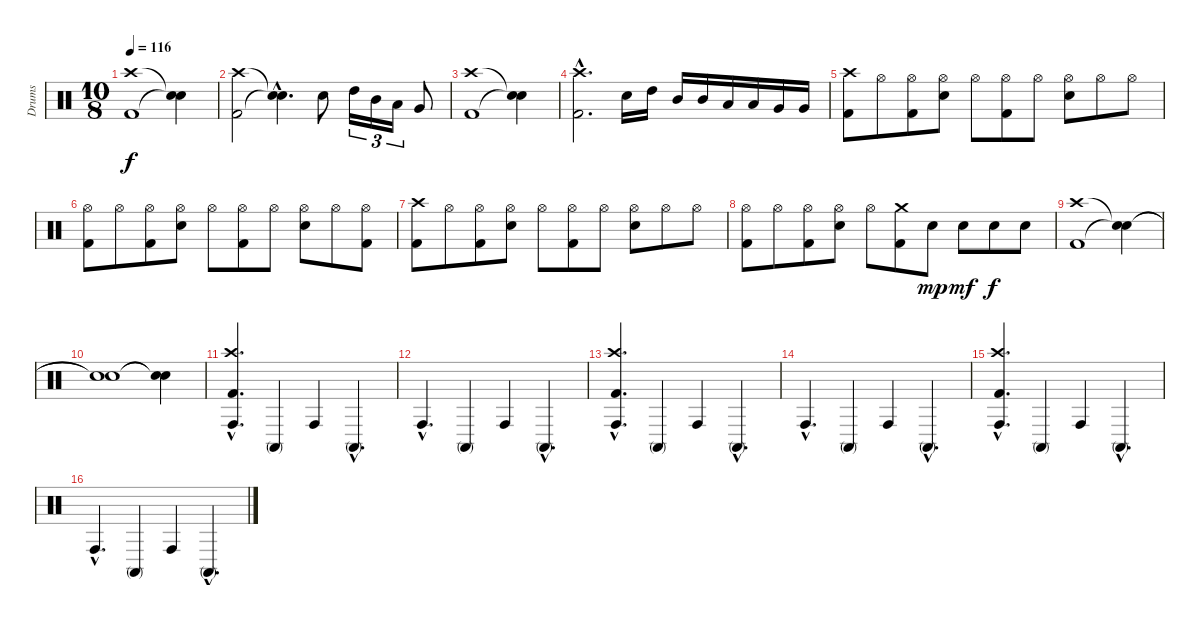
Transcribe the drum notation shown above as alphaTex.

\track ("Drums" "Drums") {instrument percussion}
\staff {score}
\articulation defaults
\ts (10 8)
\tempo 116
\clef neutral
\ks c
("Crash high (hit)" "Kick (hit) 2").1{dy f} ("Snare (hit)"{t} "Snare (hit)"{t}).4 |
("Crash high (hit)" "Kick (hit) 2").2 ("Snare (hit)"{hac t} "Snare (hit)"{hac t}).4{d} "Snare (hit) 2".8 "High Tom (hit)".16{tu (3 2)} "Mid Tom (hit)".16{tu (3 2)} "Low Tom (hit)".16{tu (3 2)} "Very Low Tom (hit)".8 |
("Crash high (hit)" "Kick (hit) 2").1 ("Snare (hit)"{t} "Snare (hit)"{t}).4 |
("Crash high (hit)"{hac} "Kick (hit) 2"{hac}).2{d} "Snare (hit) 2".16 "High Tom (hit)".16 "Mid Tom (hit)".16 "Mid Tom (hit)".16 "Low Tom (hit)".16 "Low Tom (hit)".16 "Very Low Tom (hit)".16 "Very Low Tom (hit)".16 |
("Crash high (hit)" "Kick (hit) 2").8 "Hi-Hat (open)".8 ("Hi-Hat (open)" "Kick (hit) 2").8 ("Hi-Hat (open)" "Snare (hit) 2").8 "Hi-Hat (open)".8 ("Hi-Hat (open)" "Kick (hit) 2").8 "Hi-Hat (open)".8 ("Hi-Hat (open)" "Snare (hit) 2").8 "Hi-Hat (open)".8 "Hi-Hat (open)".8 |
("Hi-Hat (open)" "Kick (hit) 2").8 "Hi-Hat (open)".8 ("Hi-Hat (open)" "Kick (hit) 2").8 ("Hi-Hat (open)" "Snare (hit) 2").8 "Hi-Hat (open)".8 ("Hi-Hat (open)" "Kick (hit) 2").8 "Hi-Hat (open)".8 ("Hi-Hat (open)" "Snare (hit) 2").8 "Hi-Hat (open)".8 ("Hi-Hat (open)" "Kick (hit) 2").8 |
("Crash high (hit)" "Kick (hit) 2").8 "Hi-Hat (open)".8 ("Hi-Hat (open)" "Kick (hit) 2").8 ("Hi-Hat (open)" "Snare (hit) 2").8 "Hi-Hat (open)".8 ("Hi-Hat (open)" "Kick (hit) 2").8 "Hi-Hat (open)".8 ("Hi-Hat (open)" "Snare (hit) 2").8 "Hi-Hat (open)".8 "Hi-Hat (open)".8 |
("Hi-Hat (open)" "Kick (hit) 2").8 "Hi-Hat (open)".8 ("Hi-Hat (open)" "Kick (hit) 2").8 ("Hi-Hat (open)" "Snare (hit) 2").8 "Hi-Hat (open)".8 ("Crash medium (hit)" "Kick (hit) 2").8 "Snare (hit) 2".8{dy mp} "Snare (hit) 2".8{dy mf} "Snare (hit) 2".8{dy f} "Snare (hit) 2".8 |
("Crash high (hit)" "Kick (hit) 2").1 ("Snare (hit)"{t} "Snare (hit)"{t}).4 |
("Snare (hit)"{t} "Snare (hit)"{t}).1 ("Snare (hit)"{t} "Snare (hit)"{t}).4 |
("Crash high (hit)"{hac} "Conga high (hit)"{hac} "Kick (hit) 2"{hac}).4{d} "Conga high (mute)".4 "Conga high (hit)".4 "Conga high (mute)"{hac}.4{d} |
"Conga high (hit)"{hac}.4{d} "Conga high (mute)".4 "Conga high (hit)".4 "Conga high (mute)"{hac}.4{d} |
("Crash high (hit)"{hac} "Conga high (hit)"{hac} "Kick (hit) 2"{hac}).4{d} "Conga high (mute)".4 "Conga high (hit)".4 "Conga high (mute)"{hac}.4{d} |
"Conga high (hit)"{hac}.4{d} "Conga high (mute)".4 "Conga high (hit)".4 "Conga high (mute)"{hac}.4{d} |
("Crash high (hit)"{hac} "Conga high (hit)"{hac} "Kick (hit) 2"{hac}).4{d} "Conga high (mute)".4 "Conga high (hit)".4 "Conga high (mute)"{hac}.4{d} |
"Conga high (hit)"{hac}.4{d} "Conga high (mute)".4 "Conga high (hit)".4 "Conga high (mute)"{hac}.4{d}
